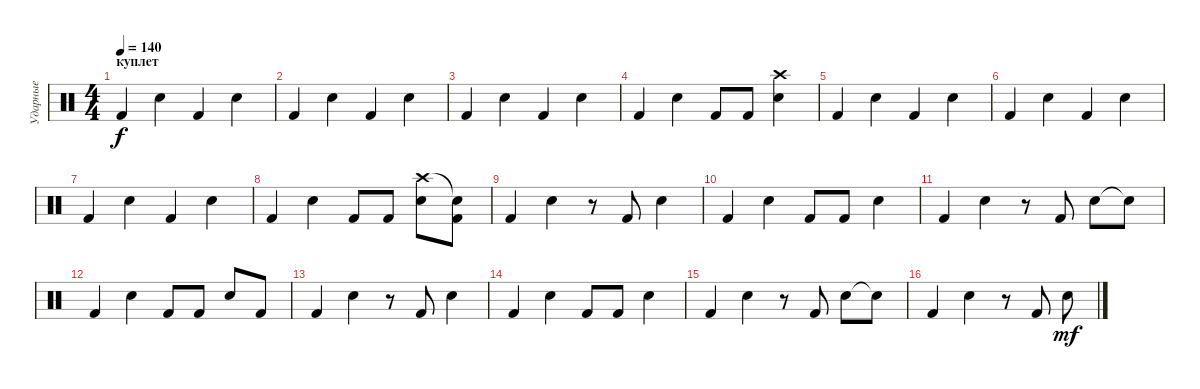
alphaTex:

\track ("Ударные" "Ударные") {instrument percussion}
\staff {score}
\articulation defaults
\ts (4 4)
\section ("" "куплет")
\tempo 140
\clef neutral
\ks c "Kick (hit) 2".4{dy f} "Electric Snare (hit)".4 "Kick (hit) 2".4 "Electric Snare (hit)".4
|
"Kick (hit) 2".4 "Electric Snare (hit)".4 "Kick (hit) 2".4 "Electric Snare (hit)".4 |
"Kick (hit) 2".4 "Electric Snare (hit)".4 "Kick (hit) 2".4 "Electric Snare (hit)".4 |
"Kick (hit) 2".4 "Electric Snare (hit)".4 "Kick (hit) 2".8 "Kick (hit) 2".8 ("Crash high (hit)" "Electric Snare (hit)").4 |
"Kick (hit) 2".4 "Electric Snare (hit)".4 "Kick (hit) 2".4 "Electric Snare (hit)".4 |
"Kick (hit) 2".4 "Electric Snare (hit)".4 "Kick (hit) 2".4 "Electric Snare (hit)".4 |
"Kick (hit) 2".4 "Electric Snare (hit)".4 "Kick (hit) 2".4 "Electric Snare (hit)".4 |
"Kick (hit) 2".4 "Electric Snare (hit)".4 "Kick (hit) 2".8 "Kick (hit) 2".8 ("Crash high (hit)" "Electric Snare (hit)").8 ("Snare (hit)"{t} "Kick (hit) 2").8 |
"Kick (hit) 2".4 "Electric Snare (hit)".4 r.8 "Kick (hit) 2".8 "Electric Snare (hit)".4 |
"Kick (hit) 2".4 "Electric Snare (hit)".4 "Kick (hit) 2".8 "Kick (hit) 2".8 "Electric Snare (hit)".4 |
"Kick (hit) 2".4 "Electric Snare (hit)".4 r.8 "Kick (hit) 2".8 "Electric Snare (hit)".8 "Electric Snare (hit)"{t}.8 |
"Kick (hit) 2".4 "Electric Snare (hit)".4 "Kick (hit) 2".8 "Kick (hit) 2".8 "Electric Snare (hit)".8 "Kick (hit) 2".8 |
"Kick (hit) 2".4 "Electric Snare (hit)".4 r.8 "Kick (hit) 2".8 "Electric Snare (hit)".4 |
"Kick (hit) 2".4 "Electric Snare (hit)".4 "Kick (hit) 2".8 "Kick (hit) 2".8 "Electric Snare (hit)".4 |
"Kick (hit) 2".4 "Electric Snare (hit)".4 r.8 "Kick (hit) 2".8 "Electric Snare (hit)".8 "Electric Snare (hit)"{t}.8 |
"Kick (hit) 2".4 "Electric Snare (hit)".4 r.8 "Kick (hit) 2".8 "Electric Snare (hit)".8{dy mf}
